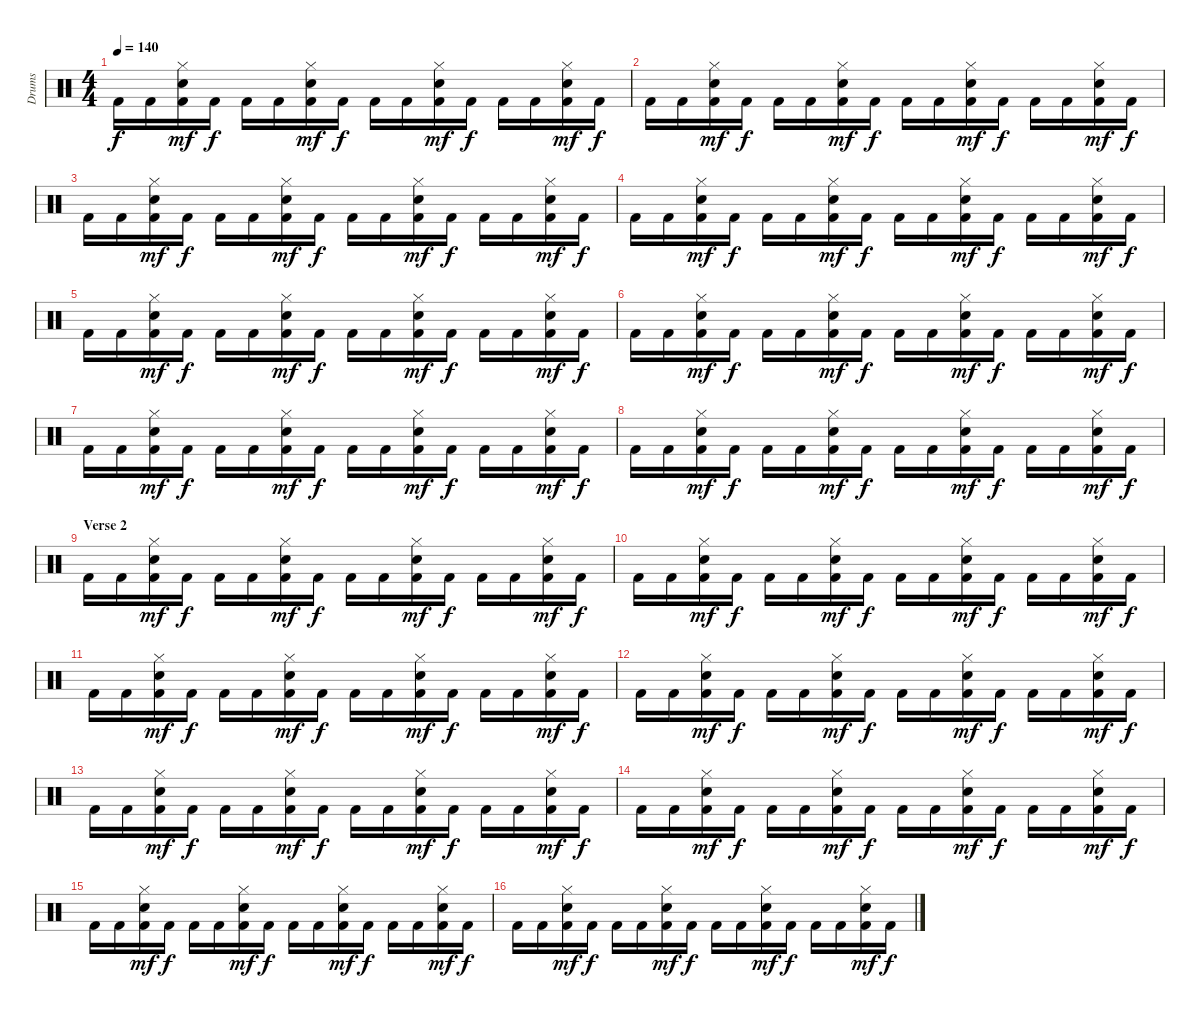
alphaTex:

\track ("Drums" "Drums") {instrument percussion}
\staff {score}
\articulation defaults
\ts (4 4)
\tempo 140
\clef neutral
\ks c "Kick (hit) 2".16{dy f} "Kick (hit) 2".16
("Kick (hit) 2" "Snare (hit) 2" "Hi-Hat (closed)").16{dy mf} "Kick (hit) 2".16{dy f} "Kick (hit) 2".16 "Kick (hit) 2".16 ("Kick (hit) 2" "Snare (hit) 2" "Hi-Hat (closed)").16{dy mf} "Kick (hit) 2".16{dy f} "Kick (hit) 2".16 "Kick (hit) 2".16 ("Kick (hit) 2" "Snare (hit) 2" "Hi-Hat (closed)").16{dy mf} "Kick (hit) 2".16{dy f} "Kick (hit) 2".16 "Kick (hit) 2".16 ("Kick (hit) 2" "Snare (hit) 2" "Hi-Hat (closed)").16{dy mf} "Kick (hit) 2".16{dy f} |
"Kick (hit) 2".16 "Kick (hit) 2".16 ("Kick (hit) 2" "Snare (hit) 2" "Hi-Hat (closed)").16{dy mf} "Kick (hit) 2".16{dy f} "Kick (hit) 2".16 "Kick (hit) 2".16 ("Kick (hit) 2" "Snare (hit) 2" "Hi-Hat (closed)").16{dy mf} "Kick (hit) 2".16{dy f} "Kick (hit) 2".16 "Kick (hit) 2".16 ("Kick (hit) 2" "Snare (hit) 2" "Hi-Hat (closed)").16{dy mf} "Kick (hit) 2".16{dy f} "Kick (hit) 2".16 "Kick (hit) 2".16 ("Kick (hit) 2" "Snare (hit) 2" "Hi-Hat (closed)").16{dy mf} "Kick (hit) 2".16{dy f} |
"Kick (hit) 2".16 "Kick (hit) 2".16 ("Kick (hit) 2" "Snare (hit) 2" "Hi-Hat (closed)").16{dy mf} "Kick (hit) 2".16{dy f} "Kick (hit) 2".16 "Kick (hit) 2".16 ("Kick (hit) 2" "Snare (hit) 2" "Hi-Hat (closed)").16{dy mf} "Kick (hit) 2".16{dy f} "Kick (hit) 2".16 "Kick (hit) 2".16 ("Kick (hit) 2" "Snare (hit) 2" "Hi-Hat (closed)").16{dy mf} "Kick (hit) 2".16{dy f} "Kick (hit) 2".16 "Kick (hit) 2".16 ("Kick (hit) 2" "Snare (hit) 2" "Hi-Hat (closed)").16{dy mf} "Kick (hit) 2".16{dy f} |
"Kick (hit) 2".16 "Kick (hit) 2".16 ("Kick (hit) 2" "Snare (hit) 2" "Hi-Hat (closed)").16{dy mf} "Kick (hit) 2".16{dy f} "Kick (hit) 2".16 "Kick (hit) 2".16 ("Kick (hit) 2" "Snare (hit) 2" "Hi-Hat (closed)").16{dy mf} "Kick (hit) 2".16{dy f} "Kick (hit) 2".16 "Kick (hit) 2".16 ("Kick (hit) 2" "Snare (hit) 2" "Hi-Hat (closed)").16{dy mf} "Kick (hit) 2".16{dy f} "Kick (hit) 2".16 "Kick (hit) 2".16 ("Kick (hit) 2" "Snare (hit) 2" "Hi-Hat (closed)").16{dy mf} "Kick (hit) 2".16{dy f} |
"Kick (hit) 2".16 "Kick (hit) 2".16 ("Kick (hit) 2" "Snare (hit) 2" "Hi-Hat (closed)").16{dy mf} "Kick (hit) 2".16{dy f} "Kick (hit) 2".16 "Kick (hit) 2".16 ("Kick (hit) 2" "Snare (hit) 2" "Hi-Hat (closed)").16{dy mf} "Kick (hit) 2".16{dy f} "Kick (hit) 2".16 "Kick (hit) 2".16 ("Kick (hit) 2" "Snare (hit) 2" "Hi-Hat (closed)").16{dy mf} "Kick (hit) 2".16{dy f} "Kick (hit) 2".16 "Kick (hit) 2".16 ("Kick (hit) 2" "Snare (hit) 2" "Hi-Hat (closed)").16{dy mf} "Kick (hit) 2".16{dy f} |
"Kick (hit) 2".16 "Kick (hit) 2".16 ("Kick (hit) 2" "Snare (hit) 2" "Hi-Hat (closed)").16{dy mf} "Kick (hit) 2".16{dy f} "Kick (hit) 2".16 "Kick (hit) 2".16 ("Kick (hit) 2" "Snare (hit) 2" "Hi-Hat (closed)").16{dy mf} "Kick (hit) 2".16{dy f} "Kick (hit) 2".16 "Kick (hit) 2".16 ("Kick (hit) 2" "Snare (hit) 2" "Hi-Hat (closed)").16{dy mf} "Kick (hit) 2".16{dy f} "Kick (hit) 2".16 "Kick (hit) 2".16 ("Kick (hit) 2" "Snare (hit) 2" "Hi-Hat (closed)").16{dy mf} "Kick (hit) 2".16{dy f} |
"Kick (hit) 2".16 "Kick (hit) 2".16 ("Kick (hit) 2" "Snare (hit) 2" "Hi-Hat (closed)").16{dy mf} "Kick (hit) 2".16{dy f} "Kick (hit) 2".16 "Kick (hit) 2".16 ("Kick (hit) 2" "Snare (hit) 2" "Hi-Hat (closed)").16{dy mf} "Kick (hit) 2".16{dy f} "Kick (hit) 2".16 "Kick (hit) 2".16 ("Kick (hit) 2" "Snare (hit) 2" "Hi-Hat (closed)").16{dy mf} "Kick (hit) 2".16{dy f} "Kick (hit) 2".16 "Kick (hit) 2".16 ("Kick (hit) 2" "Snare (hit) 2" "Hi-Hat (closed)").16{dy mf} "Kick (hit) 2".16{dy f} |
"Kick (hit) 2".16 "Kick (hit) 2".16 ("Kick (hit) 2" "Snare (hit) 2" "Hi-Hat (closed)").16{dy mf} "Kick (hit) 2".16{dy f} "Kick (hit) 2".16 "Kick (hit) 2".16 ("Kick (hit) 2" "Snare (hit) 2" "Hi-Hat (closed)").16{dy mf} "Kick (hit) 2".16{dy f} "Kick (hit) 2".16 "Kick (hit) 2".16 ("Kick (hit) 2" "Snare (hit) 2" "Hi-Hat (closed)").16{dy mf} "Kick (hit) 2".16{dy f} "Kick (hit) 2".16 "Kick (hit) 2".16 ("Kick (hit) 2" "Snare (hit) 2" "Hi-Hat (closed)").16{dy mf} "Kick (hit) 2".16{dy f} |
\section ("" "Verse 2")
"Kick (hit) 2".16 "Kick (hit) 2".16 ("Kick (hit) 2" "Snare (hit) 2" "Hi-Hat (closed)").16{dy mf} "Kick (hit) 2".16{dy f} "Kick (hit) 2".16 "Kick (hit) 2".16 ("Kick (hit) 2" "Snare (hit) 2" "Hi-Hat (closed)").16{dy mf} "Kick (hit) 2".16{dy f} "Kick (hit) 2".16 "Kick (hit) 2".16 ("Kick (hit) 2" "Snare (hit) 2" "Hi-Hat (closed)").16{dy mf} "Kick (hit) 2".16{dy f} "Kick (hit) 2".16 "Kick (hit) 2".16 ("Kick (hit) 2" "Snare (hit) 2" "Hi-Hat (closed)").16{dy mf} "Kick (hit) 2".16{dy f} |
"Kick (hit) 2".16 "Kick (hit) 2".16 ("Kick (hit) 2" "Snare (hit) 2" "Hi-Hat (closed)").16{dy mf} "Kick (hit) 2".16{dy f} "Kick (hit) 2".16 "Kick (hit) 2".16 ("Kick (hit) 2" "Snare (hit) 2" "Hi-Hat (closed)").16{dy mf} "Kick (hit) 2".16{dy f} "Kick (hit) 2".16 "Kick (hit) 2".16 ("Kick (hit) 2" "Snare (hit) 2" "Hi-Hat (closed)").16{dy mf} "Kick (hit) 2".16{dy f} "Kick (hit) 2".16 "Kick (hit) 2".16 ("Kick (hit) 2" "Snare (hit) 2" "Hi-Hat (closed)").16{dy mf} "Kick (hit) 2".16{dy f} |
"Kick (hit) 2".16 "Kick (hit) 2".16 ("Kick (hit) 2" "Snare (hit) 2" "Hi-Hat (closed)").16{dy mf} "Kick (hit) 2".16{dy f} "Kick (hit) 2".16 "Kick (hit) 2".16 ("Kick (hit) 2" "Snare (hit) 2" "Hi-Hat (closed)").16{dy mf} "Kick (hit) 2".16{dy f} "Kick (hit) 2".16 "Kick (hit) 2".16 ("Kick (hit) 2" "Snare (hit) 2" "Hi-Hat (closed)").16{dy mf} "Kick (hit) 2".16{dy f} "Kick (hit) 2".16 "Kick (hit) 2".16 ("Kick (hit) 2" "Snare (hit) 2" "Hi-Hat (closed)").16{dy mf} "Kick (hit) 2".16{dy f} |
"Kick (hit) 2".16 "Kick (hit) 2".16 ("Kick (hit) 2" "Snare (hit) 2" "Hi-Hat (closed)").16{dy mf} "Kick (hit) 2".16{dy f} "Kick (hit) 2".16 "Kick (hit) 2".16 ("Kick (hit) 2" "Snare (hit) 2" "Hi-Hat (closed)").16{dy mf} "Kick (hit) 2".16{dy f} "Kick (hit) 2".16 "Kick (hit) 2".16 ("Kick (hit) 2" "Snare (hit) 2" "Hi-Hat (closed)").16{dy mf} "Kick (hit) 2".16{dy f} "Kick (hit) 2".16 "Kick (hit) 2".16 ("Kick (hit) 2" "Snare (hit) 2" "Hi-Hat (closed)").16{dy mf} "Kick (hit) 2".16{dy f} |
"Kick (hit) 2".16 "Kick (hit) 2".16 ("Kick (hit) 2" "Snare (hit) 2" "Hi-Hat (closed)").16{dy mf} "Kick (hit) 2".16{dy f} "Kick (hit) 2".16 "Kick (hit) 2".16 ("Kick (hit) 2" "Snare (hit) 2" "Hi-Hat (closed)").16{dy mf} "Kick (hit) 2".16{dy f} "Kick (hit) 2".16 "Kick (hit) 2".16 ("Kick (hit) 2" "Snare (hit) 2" "Hi-Hat (closed)").16{dy mf} "Kick (hit) 2".16{dy f} "Kick (hit) 2".16 "Kick (hit) 2".16 ("Kick (hit) 2" "Snare (hit) 2" "Hi-Hat (closed)").16{dy mf} "Kick (hit) 2".16{dy f} |
"Kick (hit) 2".16 "Kick (hit) 2".16 ("Kick (hit) 2" "Snare (hit) 2" "Hi-Hat (closed)").16{dy mf} "Kick (hit) 2".16{dy f} "Kick (hit) 2".16 "Kick (hit) 2".16 ("Kick (hit) 2" "Snare (hit) 2" "Hi-Hat (closed)").16{dy mf} "Kick (hit) 2".16{dy f} "Kick (hit) 2".16 "Kick (hit) 2".16 ("Kick (hit) 2" "Snare (hit) 2" "Hi-Hat (closed)").16{dy mf} "Kick (hit) 2".16{dy f} "Kick (hit) 2".16 "Kick (hit) 2".16 ("Kick (hit) 2" "Snare (hit) 2" "Hi-Hat (closed)").16{dy mf} "Kick (hit) 2".16{dy f} |
"Kick (hit) 2".16 "Kick (hit) 2".16 ("Kick (hit) 2" "Snare (hit) 2" "Hi-Hat (closed)").16{dy mf} "Kick (hit) 2".16{dy f} "Kick (hit) 2".16 "Kick (hit) 2".16 ("Kick (hit) 2" "Snare (hit) 2" "Hi-Hat (closed)").16{dy mf} "Kick (hit) 2".16{dy f} "Kick (hit) 2".16 "Kick (hit) 2".16 ("Kick (hit) 2" "Snare (hit) 2" "Hi-Hat (closed)").16{dy mf} "Kick (hit) 2".16{dy f} "Kick (hit) 2".16 "Kick (hit) 2".16 ("Kick (hit) 2" "Snare (hit) 2" "Hi-Hat (closed)").16{dy mf} "Kick (hit) 2".16{dy f} |
"Kick (hit) 2".16 "Kick (hit) 2".16 ("Kick (hit) 2" "Snare (hit) 2" "Hi-Hat (closed)").16{dy mf} "Kick (hit) 2".16{dy f} "Kick (hit) 2".16 "Kick (hit) 2".16 ("Kick (hit) 2" "Snare (hit) 2" "Hi-Hat (closed)").16{dy mf} "Kick (hit) 2".16{dy f} "Kick (hit) 2".16 "Kick (hit) 2".16 ("Kick (hit) 2" "Snare (hit) 2" "Hi-Hat (closed)").16{dy mf} "Kick (hit) 2".16{dy f} "Kick (hit) 2".16 "Kick (hit) 2".16 ("Kick (hit) 2" "Snare (hit) 2" "Hi-Hat (closed)").16{dy mf} "Kick (hit) 2".16{dy f}
